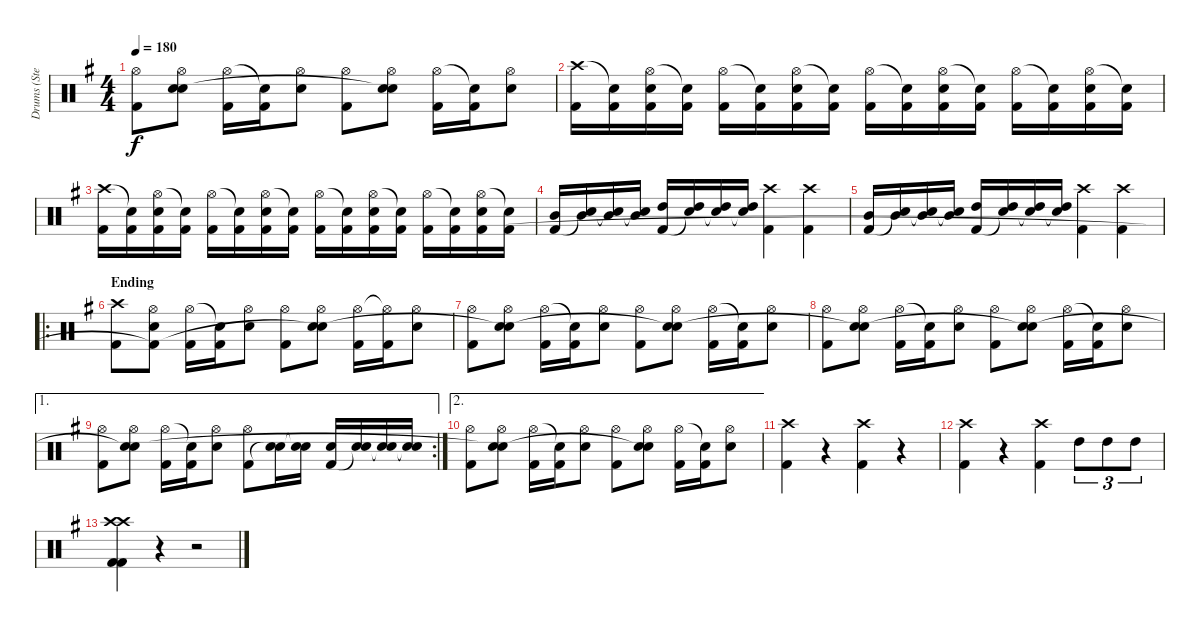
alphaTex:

\track ("Drums (Stevo)" "Drums (Ste") {instrument percussion}
\staff {score}
\articulation defaults
\ts (4 4)
\tempo 180
\clef neutral
\ks g
("Hi-Hat (open)" "Kick (hit) 2").8{dy f} ("Hi-Hat (open)" "Snare (hit) 2" "Snare (hit)"{t}).8 ("Hi-Hat (open)" "Kick (hit) 2").16 ("Snare (hit)"{t} "Kick (hit) 2").16 ("Hi-Hat (open)" "Snare (hit) 2").8 ("Hi-Hat (open)" "Kick (hit) 2").8 ("Hi-Hat (open)" "Snare (hit) 2" "Snare (hit)"{t}).8 ("Hi-Hat (open)" "Kick (hit) 2").16 ("Snare (hit)"{t} "Kick (hit) 2").16 ("Hi-Hat (open)" "Snare (hit) 2").8 |
("Crash high (hit)" "Kick (hit) 2").16 ("Snare (hit)"{t} "Kick (hit) 2").16 ("Hi-Hat (open)" "Snare (hit) 2" "Kick (hit) 2").16 ("Snare (hit)"{t} "Kick (hit) 2").16 ("Hi-Hat (open)" "Kick (hit) 2").16 ("Snare (hit)"{t} "Kick (hit) 2").16 ("Hi-Hat (open)" "Snare (hit) 2" "Kick (hit) 2").16 ("Snare (hit)"{t} "Kick (hit) 2").16 ("Hi-Hat (open)" "Kick (hit) 2").16 ("Snare (hit)"{t} "Kick (hit) 2").16 ("Hi-Hat (open)" "Snare (hit) 2" "Kick (hit) 2").16 ("Snare (hit)"{t} "Kick (hit) 2").16 ("Hi-Hat (open)" "Kick (hit) 2").16 ("Snare (hit)"{t} "Kick (hit) 2").16 ("Hi-Hat (open)" "Snare (hit) 2" "Kick (hit) 2").16 ("Snare (hit)"{t} "Kick (hit) 2").16 |
("Crash high (hit)" "Kick (hit) 2").16 ("Snare (hit)"{t} "Kick (hit) 2").16 ("Hi-Hat (open)" "Snare (hit) 2" "Kick (hit) 2").16 ("Snare (hit)"{t} "Kick (hit) 2").16 ("Hi-Hat (open)" "Kick (hit) 2").16 ("Snare (hit)"{t} "Kick (hit) 2").16 ("Hi-Hat (open)" "Snare (hit) 2" "Kick (hit) 2").16 ("Snare (hit)"{t} "Kick (hit) 2").16 ("Hi-Hat (open)" "Kick (hit) 2").16 ("Snare (hit)"{t} "Kick (hit) 2").16 ("Hi-Hat (open)" "Snare (hit) 2" "Kick (hit) 2").16 ("Snare (hit)"{t} "Kick (hit) 2").16 ("Hi-Hat (open)" "Kick (hit) 2").16 ("Snare (hit)"{t} "Kick (hit) 2").16 ("Hi-Hat (open)" "Snare (hit) 2" "Kick (hit) 2").16 ("Snare (hit)"{t} "Kick (hit) 2").16 |
("Mid Tom (hit)" "Kick (hit) 2").16 ("Mid Tom (hit)" "Snare (hit)"{t}).16 ("Mid Tom (hit)" "Snare (hit)"{t}).16 ("Mid Tom (hit)" "Snare (hit)"{t}).16 ("High Tom (hit)" "Kick (hit) 2").16 ("High Tom (hit)" "Snare (hit)"{t}).16 ("High Tom (hit)" "Snare (hit)"{t}).16 ("High Tom (hit)" "Snare (hit)"{t}).16 ("Crash high (hit)" "Kick (hit) 2").4 ("Crash high (hit)" "Kick (hit) 2").4 |
("Mid Tom (hit)" "Kick (hit) 2").16 ("Mid Tom (hit)" "Snare (hit)"{t}).16 ("Mid Tom (hit)" "Snare (hit)"{t}).16 ("Mid Tom (hit)" "Snare (hit)"{t}).16 ("High Tom (hit)" "Kick (hit) 2").16 ("High Tom (hit)" "Snare (hit)"{t}).16 ("High Tom (hit)" "Snare (hit)"{t}).16 ("High Tom (hit)" "Snare (hit)"{t}).16 ("Crash high (hit)" "Kick (hit) 2").4 ("Crash high (hit)" "Kick (hit) 2").4 |
\ro
\section ("" "Ending")
("Crash high (hit)" "Kick (hit) 2").8 ("Hi-Hat (open)" "Snare (hit) 2" "Kick (hit) 2"{t}).8 ("Hi-Hat (open)" "Kick (hit) 2").16 ("Snare (hit)"{t} "Kick (hit) 2").16 ("Hi-Hat (open)" "Snare (hit) 2").8 ("Hi-Hat (open)" "Kick (hit) 2").8 ("Hi-Hat (open)" "Snare (hit) 2" "Snare (hit)"{t}).8 ("Hi-Hat (open)" "Kick (hit) 2").16 ("Hi-Hat (open)"{t} "Kick (hit) 2").16 ("Hi-Hat (open)" "Snare (hit) 2").8 |
("Hi-Hat (open)" "Kick (hit) 2").8 ("Hi-Hat (open)" "Snare (hit) 2" "Snare (hit)"{t}).8 ("Hi-Hat (open)" "Kick (hit) 2").16 ("Snare (hit)"{t} "Kick (hit) 2").16 ("Hi-Hat (open)" "Snare (hit) 2").8 ("Hi-Hat (open)" "Kick (hit) 2").8 ("Hi-Hat (open)" "Snare (hit) 2" "Snare (hit)"{t}).8 ("Hi-Hat (open)" "Kick (hit) 2").16 ("Snare (hit)"{t} "Kick (hit) 2").16 ("Hi-Hat (open)" "Snare (hit) 2").8 |
("Hi-Hat (open)" "Kick (hit) 2").8 ("Hi-Hat (open)" "Snare (hit) 2" "Snare (hit)"{t}).8 ("Hi-Hat (open)" "Kick (hit) 2").16 ("Snare (hit)"{t} "Kick (hit) 2").16 ("Hi-Hat (open)" "Snare (hit) 2").8 ("Hi-Hat (open)" "Kick (hit) 2").8 ("Hi-Hat (open)" "Snare (hit) 2" "Snare (hit)"{t}).8 ("Hi-Hat (open)" "Kick (hit) 2").16 ("Snare (hit)"{t} "Kick (hit) 2").16 ("Hi-Hat (open)" "Snare (hit) 2").8 |
\ae 1
\rc 2
("Hi-Hat (open)" "Kick (hit) 2").8 ("Hi-Hat (open)" "Snare (hit) 2" "Snare (hit)"{t}).8 ("Hi-Hat (open)" "Kick (hit) 2").16 ("Snare (hit)"{t} "Kick (hit) 2").16 ("Hi-Hat (open)" "Snare (hit) 2").8 ("Hi-Hat (open)" "Kick (hit) 2").8 ("Snare (hit) 2" "Snare (hit)"{t}).16 ("Snare (hit) 2" "Snare (hit)"{t}).16 ("Snare (hit) 2" "Kick (hit) 2").16 ("Snare (hit) 2" "Snare (hit)"{t}).16 ("Snare (hit) 2" "Snare (hit)"{t}).16 ("Snare (hit) 2" "Snare (hit)"{t}).16 |
\ae 2
("Hi-Hat (open)" "Kick (hit) 2").8 ("Hi-Hat (open)" "Snare (hit) 2" "Snare (hit)"{t}).8 ("Hi-Hat (open)" "Kick (hit) 2").16 ("Snare (hit)"{t} "Kick (hit) 2").16 ("Hi-Hat (open)" "Snare (hit) 2").8 ("Hi-Hat (open)" "Kick (hit) 2").8 ("Hi-Hat (open)" "Snare (hit) 2" "Snare (hit)"{t}).8 ("Hi-Hat (open)" "Kick (hit) 2").16 ("Snare (hit)"{t} "Kick (hit) 2").16 ("Hi-Hat (open)" "Snare (hit) 2").8 |
("Crash high (hit)" "Kick (hit) 2").4 r.4 ("Crash high (hit)" "Kick (hit) 2").4 r.4 |
("Crash high (hit)" "Kick (hit) 2").4 r.4 ("Crash high (hit)" "Kick (hit) 2").4 "High Tom (hit)".8{tu (3 2)} "High Tom (hit)".8{tu (3 2)} "High Tom (hit)".8{tu (3 2)} |
("Crash high (hit)" "Crash high (hit)" "Kick (hit) 2" "Kick (hit) 2").4 r.4 r.2
